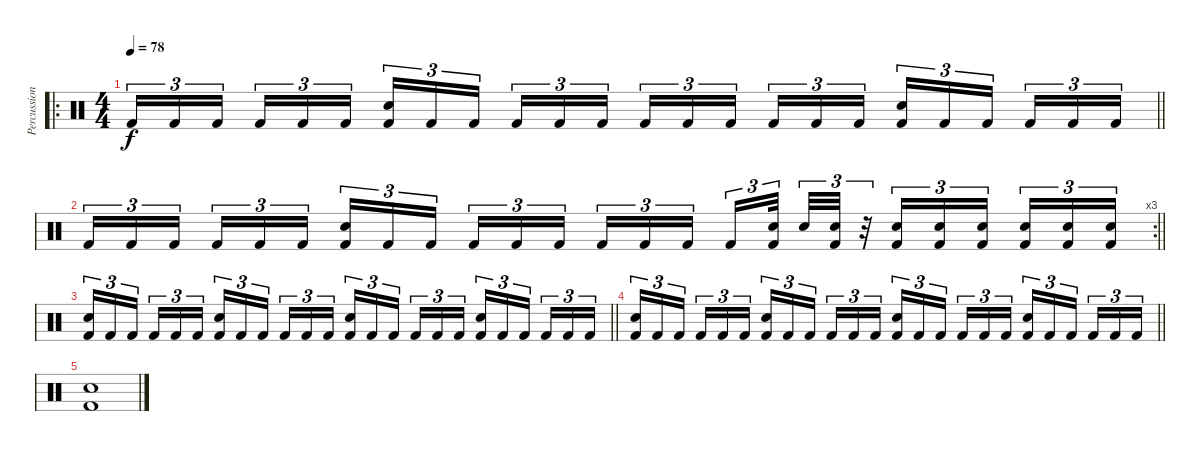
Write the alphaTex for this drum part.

\track ("Percussion" "Percussion") {instrument percussion}
\staff {score}
\articulation defaults
\ro
\ts (4 4)
\tempo 78
\clef neutral
\barLineRight lightlight
\ks c "Kick (hit) 2".16{tu (3 2) dy f} "Kick (hit) 2".16{tu (3 2)} "Kick (hit) 2".16{tu (3 2) beam splitsecondary} "Kick (hit) 2".16{tu (3 2)} "Kick (hit) 2".16{tu (3 2)} "Kick (hit) 2".16{tu (3 2)}
("Kick (hit) 2" "Electric Snare (hit)").16{tu (3 2)} "Kick (hit) 2".16{tu (3 2)} "Kick (hit) 2".16{tu (3 2) beam splitsecondary} "Kick (hit) 2".16{tu (3 2)} "Kick (hit) 2".16{tu (3 2)} "Kick (hit) 2".16{tu (3 2)} "Kick (hit) 2".16{tu (3 2)} "Kick (hit) 2".16{tu (3 2)} "Kick (hit) 2".16{tu (3 2) beam splitsecondary} "Kick (hit) 2".16{tu (3 2)} "Kick (hit) 2".16{tu (3 2)} "Kick (hit) 2".16{tu (3 2)} ("Kick (hit) 2" "Electric Snare (hit)").16{tu (3 2)} "Kick (hit) 2".16{tu (3 2)} "Kick (hit) 2".16{tu (3 2) beam splitsecondary} "Kick (hit) 2".16{tu (3 2)} "Kick (hit) 2".16{tu (3 2)} "Kick (hit) 2".16{tu (3 2)} |
\rc 3
\barLineRight lightlight "Kick (hit) 2".16{tu (3 2)} "Kick (hit) 2".16{tu (3 2)} "Kick (hit) 2".16{tu (3 2) beam splitsecondary} "Kick (hit) 2".16{tu (3 2)} "Kick (hit) 2".16{tu (3 2)} "Kick (hit) 2".16{tu (3 2)}
("Kick (hit) 2" "Electric Snare (hit)").16{tu (3 2)} "Kick (hit) 2".16{tu (3 2)} "Kick (hit) 2".16{tu (3 2) beam splitsecondary} "Kick (hit) 2".16{tu (3 2)} "Kick (hit) 2".16{tu (3 2)} "Kick (hit) 2".16{tu (3 2)} "Kick (hit) 2".16{tu (3 2)} "Kick (hit) 2".16{tu (3 2)} "Kick (hit) 2".16{tu (3 2) beam splitsecondary} "Kick (hit) 2".16{tu (3 2)} ("Kick (hit) 2" "Electric Snare (hit)").32{tu (3 2) beam splitsecondary} "Electric Snare (hit)".32{tu (3 2)} ("Kick (hit) 2" "Electric Snare (hit)").32{tu (3 2)} r.32{tu (3 2)} ("Kick (hit) 2" "Electric Snare (hit)").16{tu (3 2)} ("Kick (hit) 2" "Electric Snare (hit)").16{tu (3 2)} ("Kick (hit) 2" "Electric Snare (hit)").16{tu (3 2) beam splitsecondary} ("Kick (hit) 2" "Electric Snare (hit)").16{tu (3 2)} ("Kick (hit) 2" "Electric Snare (hit)").16{tu (3 2)} ("Kick (hit) 2" "Electric Snare (hit)").16{tu (3 2)} |
\barLineRight lightlight
("Kick (hit) 2" "Electric Snare (hit)").16{tu (3 2)} "Kick (hit) 2".16{tu (3 2)} "Kick (hit) 2".16{tu (3 2) beam splitsecondary} "Kick (hit) 2".16{tu (3 2)} "Kick (hit) 2".16{tu (3 2)} "Kick (hit) 2".16{tu (3 2)} ("Kick (hit) 2" "Electric Snare (hit)").16{tu (3 2)} "Kick (hit) 2".16{tu (3 2)} "Kick (hit) 2".16{tu (3 2) beam splitsecondary} "Kick (hit) 2".16{tu (3 2)} "Kick (hit) 2".16{tu (3 2)} "Kick (hit) 2".16{tu (3 2)} ("Kick (hit) 2" "Electric Snare (hit)").16{tu (3 2)} "Kick (hit) 2".16{tu (3 2)} "Kick (hit) 2".16{tu (3 2) beam splitsecondary} "Kick (hit) 2".16{tu (3 2)} "Kick (hit) 2".16{tu (3 2)} "Kick (hit) 2".16{tu (3 2)} ("Kick (hit) 2" "Electric Snare (hit)").16{tu (3 2)} "Kick (hit) 2".16{tu (3 2)} "Kick (hit) 2".16{tu (3 2) beam splitsecondary} "Kick (hit) 2".16{tu (3 2)} "Kick (hit) 2".16{tu (3 2)} "Kick (hit) 2".16{tu (3 2)} |
\barLineRight lightlight
("Kick (hit) 2" "Electric Snare (hit)").16{tu (3 2)} "Kick (hit) 2".16{tu (3 2)} "Kick (hit) 2".16{tu (3 2) beam splitsecondary} "Kick (hit) 2".16{tu (3 2)} "Kick (hit) 2".16{tu (3 2)} "Kick (hit) 2".16{tu (3 2)} ("Kick (hit) 2" "Electric Snare (hit)").16{tu (3 2)} "Kick (hit) 2".16{tu (3 2)} "Kick (hit) 2".16{tu (3 2) beam splitsecondary} "Kick (hit) 2".16{tu (3 2)} "Kick (hit) 2".16{tu (3 2)} "Kick (hit) 2".16{tu (3 2)} ("Kick (hit) 2" "Electric Snare (hit)").16{tu (3 2)} "Kick (hit) 2".16{tu (3 2)} "Kick (hit) 2".16{tu (3 2) beam splitsecondary} "Kick (hit) 2".16{tu (3 2)} "Kick (hit) 2".16{tu (3 2)} "Kick (hit) 2".16{tu (3 2)} ("Kick (hit) 2" "Electric Snare (hit)").16{tu (3 2)} "Kick (hit) 2".16{tu (3 2)} "Kick (hit) 2".16{tu (3 2) beam splitsecondary} "Kick (hit) 2".16{tu (3 2)} "Kick (hit) 2".16{tu (3 2)} "Kick (hit) 2".16{tu (3 2)} |
("Kick (hit) 2" "Electric Snare (hit)").1
